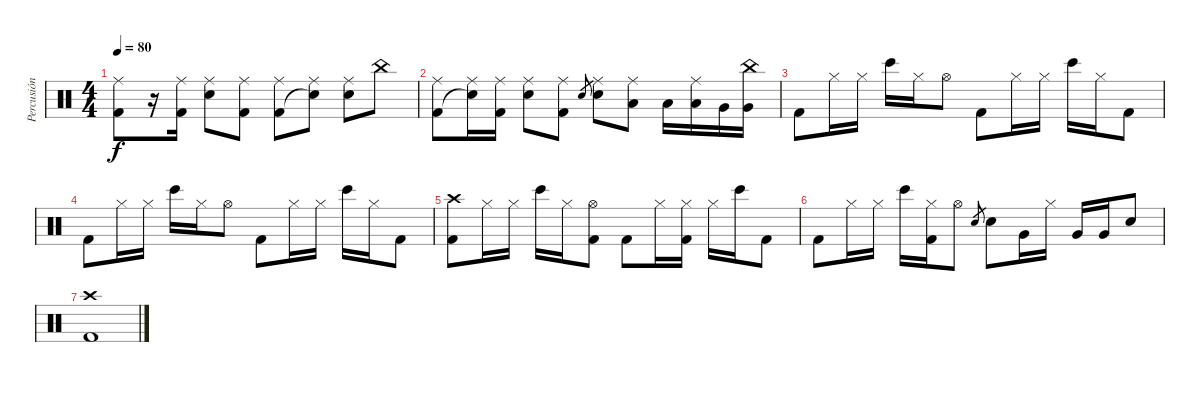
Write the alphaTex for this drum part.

\track ("Percusión" "Percusión") {instrument percussion}
\staff {score}
\articulation defaults
\ts (4 4)
\tempo 80
\clef neutral
\ks c
("Kick (hit) 2" "Ride (middle)").8{dy f} r.16 ("Kick (hit) 2" "Ride (middle)").16 ("Electric Snare (hit)" "Ride (middle)").8 ("Kick (hit) 2" "Ride (middle)").8 ("Kick (hit) 2" "Ride (middle)").8 ("Snare (hit)"{t} "Ride (middle)").8 ("Electric Snare (hit)" "Ride (middle)").8 "China (hit)".8 |
("Kick (hit) 2" "Ride (middle)").8 ("Snare (hit)"{t} "Ride (middle)").16 ("Kick (hit) 2" "Ride (middle)").16 ("Electric Snare (hit)" "Ride (middle)").8 ("Kick (hit) 2" "Ride (middle)").8 "Electric Snare (hit)".8{gr} ("Electric Snare (hit)" "Ride (middle)").8 ("Low Tom (hit)" "Ride (middle)").8 "Low Tom (hit)".16 ("Low Tom (hit)" "Ride (middle)").16 "Very Low Tom (hit)".16 ("Very Low Tom (hit)" "China (hit)").16 |
"Kick (hit) 2".8{volume 8} "Hi-Hat (closed)".16 "Hi-Hat (closed)".16 "Bongo High (hit)".16 "Hi-Hat (closed)".16 "Hi-Hat (open)".8 "Kick (hit) 2".8 "Hi-Hat (closed)".16 "Hi-Hat (closed)".16 "Bongo High (hit)".16 "Hi-Hat (closed)".16 "Kick (hit) 2".8 |
"Kick (hit) 2".8 "Hi-Hat (closed)".16 "Hi-Hat (closed)".16 "Bongo High (hit)".16 "Hi-Hat (closed)".16 "Hi-Hat (open)".8 "Kick (hit) 2".8 "Hi-Hat (closed)".16 "Hi-Hat (closed)".16 "Bongo High (hit)".16 "Hi-Hat (closed)".16 "Kick (hit) 2".8 |
("Kick (hit) 2" "Crash high (hit)").8 "Hi-Hat (closed)".16 "Hi-Hat (closed)".16 "Bongo High (hit)".16 "Hi-Hat (closed)".16 ("Kick (hit) 2" "Hi-Hat (open)").8 "Kick (hit) 2".8 "Hi-Hat (closed)".16 ("Kick (hit) 2" "Hi-Hat (closed)").16 "Hi-Hat (closed)".16 "Bongo High (hit)".16 "Kick (hit) 2".8 |
"Kick (hit) 2".8{volume 13} "Hi-Hat (closed)".16 "Hi-Hat (closed)".16 "Bongo High (hit)".16 ("Kick (hit) 2" "Hi-Hat (closed)").16 "Hi-Hat (open)".8 "Electric Snare (hit)".8{gr} "Electric Snare (hit)".8 "Very Low Tom (hit)".16 "Hi-Hat (closed)".16 "Very Low Tom (hit)".16 "Very Low Tom (hit)".16 "Electric Snare (hit)".8 |
("Crash high (hit)" "Kick (hit) 2").1
